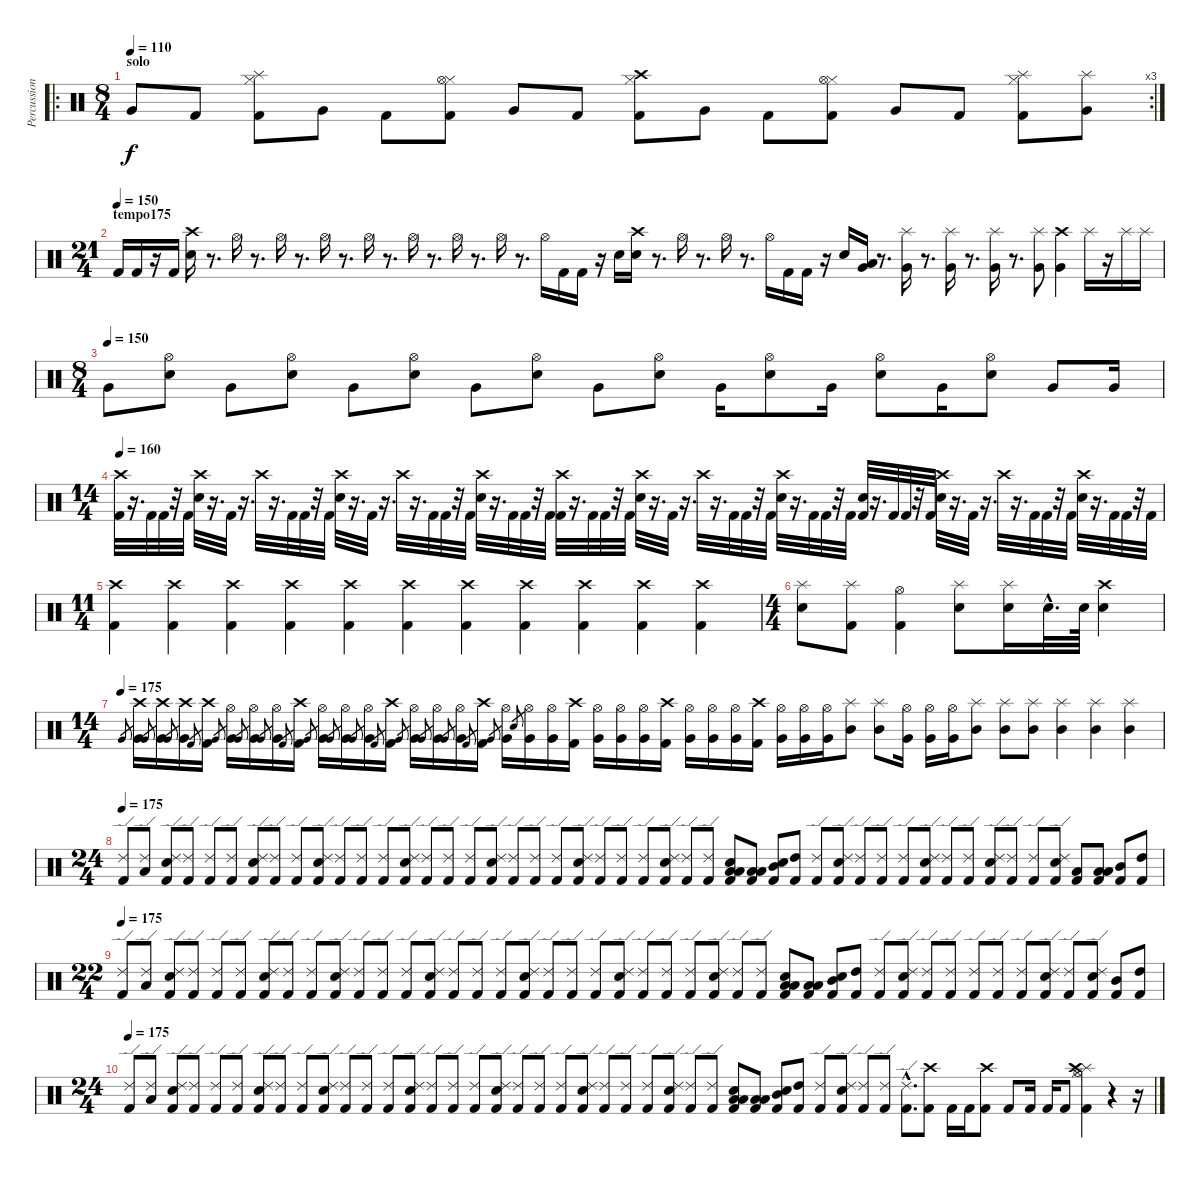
\track ("Percussions" "Percussion") {instrument percussion}
\staff {score}
\articulation defaults
\ro
\rc 3
\ts (8 4)
\section ("" "solo")
\tempo 110
\clef neutral
\ks c "Very Low Tom (hit)".8{dy f} "Kick (hit) 2".8
("Kick (hit) 2" "Hi-Hat (closed)" "Splash (hit)").8 "Very Low Tom (hit)".8 "Kick (hit) 2".8 ("Kick (hit) 2" "Hi-Hat (closed)" "Hi-Hat (open)").8 "Very Low Tom (hit)".8 "Kick (hit) 2".8 ("Kick (hit) 2" "Hi-Hat (closed)" "Crash high (hit)").8 "Very Low Tom (hit)".8 "Kick (hit) 2".8 ("Kick (hit) 2" "Hi-Hat (closed)" "Hi-Hat (open)").8 "Very Low Tom (hit)".8 "Kick (hit) 2".8 ("Kick (hit) 2" "Hi-Hat (closed)" "Splash (hit)").8 ("Very Low Tom (hit)" "Splash (hit)").8 |
\ts (21 4)
\section ("" "tempo175")
\tempo (150)
"Kick (hit) 2".16 "Kick (hit) 2".16 r.16 "Kick (hit) 2".16 ("Crash high (hit)" "Electric Snare (hit)").16 r.8{d} "Hi-Hat (open)".16 r.8{d} "Hi-Hat (open)".16 r.8{d} "Hi-Hat (open)".16 r.8{d} "Hi-Hat (open)".16 r.8{d} "Hi-Hat (open)".16 r.8{d} "Hi-Hat (open)".16 r.8{d} "Hi-Hat (open)".16 r.8{d} "Hi-Hat (open)".16 "Kick (hit) 2".16 "Kick (hit) 2".16 r.16 "Snare (hit) 2".16 ("Crash high (hit)" "Electric Snare (hit)").16 r.8{d} "Hi-Hat (open)".16 r.8{d} "Hi-Hat (open)".16 r.8{d} "Hi-Hat (open)".16 "Kick (hit) 2".16 "Kick (hit) 2".16 r.16 "Snare (hit) 2".16 ("Very Low Tom (hit)" "Low Tom (hit)").16 r.8{d} ("Very Low Tom (hit)" "Splash (hit)").16 r.8{d} ("Very Low Tom (hit)" "Splash (hit)").16 r.8{d} ("Very Low Tom (hit)" "Splash (hit)").16 r.8{d} ("Very Low Tom (hit)" "Splash (hit)").8 ("Very Low Tom (hit)" "Crash high (hit)").4 "Splash (hit)".16 r.16 "Splash (hit)".16 "Splash (hit)".16 |
\ts (8 4)
\tempo (150)
"Very Low Tom (hit)".8 ("Hi-Hat (open)" "Snare (hit) 2").8 "Very Low Tom (hit)".8 ("Hi-Hat (open)" "Snare (hit) 2").8 "Very Low Tom (hit)".8 ("Hi-Hat (open)" "Snare (hit) 2").8 "Very Low Tom (hit)".8 ("Hi-Hat (open)" "Snare (hit) 2").8 "Very Low Tom (hit)".8 ("Hi-Hat (open)" "Snare (hit) 2").8 "Very Low Tom (hit)".16 ("Hi-Hat (open)" "Snare (hit) 2").8 "Very Low Tom (hit)".16 ("Hi-Hat (open)" "Snare (hit) 2").8 "Very Low Tom (hit)".16 ("Hi-Hat (open)" "Snare (hit) 2").8 "Very Low Tom (hit)".8 "Very Low Tom (hit)".16 |
\ts (14 4)
\tempo 160
("Crash high (hit)" "Kick (hit) 2").32 r.16{d} "Kick (hit) 2".32 "Kick (hit) 2".32 r.32 "Kick (hit) 2".32 ("Electric Snare (hit)" "Crash high (hit)").32 r.16{d} "Kick (hit) 2".32 r.16{d} "Crash high (hit)".32 r.16{d} "Kick (hit) 2".32 "Kick (hit) 2".32 r.32 "Kick (hit) 2".32 ("Electric Snare (hit)" "Crash high (hit)").32 r.16{d} "Kick (hit) 2".32 r.16{d} "Crash high (hit)".32 r.16{d} "Kick (hit) 2".32 "Kick (hit) 2".32 r.32 "Kick (hit) 2".32 ("Crash high (hit)" "Electric Snare (hit)").32 r.16{d} "Kick (hit) 2".32 "Kick (hit) 2".32 r.32 "Kick (hit) 2".32 ("Crash high (hit)" "Kick (hit) 2").32 r.16{d} "Kick (hit) 2".32 "Kick (hit) 2".32 r.32 "Kick (hit) 2".32 ("Electric Snare (hit)" "Crash high (hit)").32 r.16{d} "Kick (hit) 2".32 r.16{d} "Crash high (hit)".32 r.16{d} "Kick (hit) 2".32 "Kick (hit) 2".32 r.32 "Kick (hit) 2".32 ("Crash high (hit)" "Electric Snare (hit)").32 r.16{d} "Kick (hit) 2".32 "Kick (hit) 2".32 r.32 "Kick (hit) 2".32 ("Snare (hit)" "Kick (hit) 2").32 r.16{d} "Kick (hit) 2".32 "Kick (hit) 2".32 r.32 "Kick (hit) 2".32 ("Electric Snare (hit)" "Crash high (hit)").32 r.16{d} "Kick (hit) 2".32 r.16{d} "Crash high (hit)".32 r.16{d} "Kick (hit) 2".32 "Kick (hit) 2".32 r.32 "Kick (hit) 2".32 ("Crash high (hit)" "Electric Snare (hit)").32 r.16{d} "Kick (hit) 2".32 "Kick (hit) 2".32 r.32 "Kick (hit) 2".32 |
\ts (11 4)
("Crash high (hit)" "Kick (hit) 2").4 ("Crash high (hit)" "Kick (hit) 2").4 ("Crash high (hit)" "Kick (hit) 2").4 ("Crash high (hit)" "Kick (hit) 2").4 ("Crash high (hit)" "Kick (hit) 2").4 ("Crash high (hit)" "Kick (hit) 2").4 ("Crash high (hit)" "Kick (hit) 2").4 ("Crash high (hit)" "Kick (hit) 2").4 ("Crash high (hit)" "Kick (hit) 2").4 ("Crash high (hit)" "Kick (hit) 2").4 ("Crash high (hit)" "Kick (hit) 2").4 |
\ts (4 4)
("Snare (hit) 2" "Splash (hit)").8 ("Kick (hit) 2" "Splash (hit)").8 ("Kick (hit) 2" "Hi-Hat (open)").4 ("Snare (hit) 2" "Splash (hit)").8 ("Snare (hit) 2" "Splash (hit)").16 "Snare (hit) 2"{hac}.32{d} "Snare (hit) 2".64 ("Snare (hit) 2" "Crash high (hit)").4 |
\ts (14 4)
\tempo (175)
"Very Low Tom (hit)".8{gr} ("Crash high (hit)" "Very Low Tom (hit)").16 "Very Low Tom (hit)".8{gr} ("Crash high (hit)" "Very Low Tom (hit)").16 "Very Low Tom (hit)".8{gr} ("Crash high (hit)" "Very Low Tom (hit)").16 "Kick (hit) 2".8{gr} ("Crash high (hit)" "Kick (hit) 2").16 "Very Low Tom (hit)".8{gr} ("Hi-Hat (open)" "Very Low Tom (hit)").16 "Very Low Tom (hit)".8{gr} ("Hi-Hat (open)" "Very Low Tom (hit)").16 "Very Low Tom (hit)".8{gr} ("Hi-Hat (open)" "Very Low Tom (hit)").16 "Kick (hit) 2".8{gr} ("Crash high (hit)" "Kick (hit) 2").16 "Very Low Tom (hit)".8{gr} ("Hi-Hat (open)" "Very Low Tom (hit)").16 "Very Low Tom (hit)".8{gr} ("Hi-Hat (open)" "Very Low Tom (hit)").16 "Very Low Tom (hit)".8{gr} ("Hi-Hat (open)" "Very Low Tom (hit)").16 "Kick (hit) 2".8{gr} ("Crash high (hit)" "Kick (hit) 2").16 "Very Low Tom (hit)".8{gr} ("Hi-Hat (open)" "Very Low Tom (hit)").16 "Very Low Tom (hit)".8{gr} ("Hi-Hat (open)" "Very Low Tom (hit)").16 "Very Low Tom (hit)".8{gr} ("Hi-Hat (open)" "Very Low Tom (hit)").16 "Kick (hit) 2".8{gr} ("Crash high (hit)" "Kick (hit) 2").16 "Very Low Tom (hit)".8{gr} ("Hi-Hat (open)" "Very Low Tom (hit)").16 "Snare (hit)".8{gr} ("Hi-Hat (open)" "Very Low Tom (hit)").16 ("Hi-Hat (open)" "Very Low Tom (hit)").16 ("Crash high (hit)" "Kick (hit) 2").16 ("Hi-Hat (open)" "Very Low Tom (hit)").16 ("Hi-Hat (open)" "Very Low Tom (hit)").16 ("Hi-Hat (open)" "Very Low Tom (hit)").16 ("Crash high (hit)" "Kick (hit) 2").16 ("Hi-Hat (open)" "Very Low Tom (hit)").16 ("Hi-Hat (open)" "Very Low Tom (hit)").16 ("Hi-Hat (open)" "Very Low Tom (hit)").16 ("Crash high (hit)" "Kick (hit) 2").16 ("Hi-Hat (open)" "Very Low Tom (hit)").16 ("Hi-Hat (open)" "Very Low Tom (hit)").16 ("Hi-Hat (open)" "Very Low Tom (hit)").16 ("Splash (hit)" "Mid Tom (hit)").8 ("Splash (hit)" "Mid Tom (hit)").8 ("Hi-Hat (open)" "Very Low Tom (hit)").16 ("Hi-Hat (open)" "Very Low Tom (hit)").16 ("Hi-Hat (open)" "Very Low Tom (hit)").16 ("Splash (hit)" "Mid Tom (hit)").8 ("Splash (hit)" "Mid Tom (hit)").8 ("Splash (hit)" "Mid Tom (hit)").8 ("Splash (hit)" "Mid Tom (hit)").4 ("Splash (hit)" "Mid Tom (hit)").4 ("Splash (hit)" "Mid Tom (hit)").4 |
\ts (24 4)
\tempo 175
("Kick (hit) 2" "Ride (edge) 2").8 ("Low Floor Tom (hit)" "Ride (edge) 2").8 ("Kick (hit) 2" "Snare (hit) 2" "Ride (edge) 2").8 ("Kick (hit) 2" "Ride (edge) 2").8 ("Kick (hit) 2" "Ride (edge) 2").8 ("Kick (hit) 2" "Ride (edge) 2").8 ("Kick (hit) 2" "Snare (hit) 2" "Ride (edge) 2").8 ("Kick (hit) 2" "Ride (edge) 2").8 ("Kick (hit) 2" "Ride (edge) 2").8 ("Kick (hit) 2" "Snare (hit) 2" "Ride (edge) 2").8 ("Kick (hit) 2" "Ride (edge) 2").8 ("Kick (hit) 2" "Ride (edge) 2").8 ("Kick (hit) 2" "Ride (edge) 2").8 ("Kick (hit) 2" "Snare (hit) 2" "Ride (edge) 2").8 ("Kick (hit) 2" "Ride (edge) 2").8 ("Kick (hit) 2" "Ride (edge) 2").8 ("Kick (hit) 2" "Ride (edge) 2").8 ("Kick (hit) 2" "Snare (hit) 2" "Ride (edge) 2").8 ("Kick (hit) 2" "Ride (edge) 2").8 ("Kick (hit) 2" "Ride (edge) 2").8 ("Kick (hit) 2" "Ride (edge) 2").8 ("Kick (hit) 2" "Snare (hit) 2" "Ride (edge) 2").8 ("Kick (hit) 2" "Ride (edge) 2").8 ("Kick (hit) 2" "Ride (edge) 2").8 ("Kick (hit) 2" "Ride (edge) 2").8 ("Kick (hit) 2" "Snare (hit) 2" "Ride (edge) 2").8 ("Kick (hit) 2" "Ride (edge) 2").8 ("Kick (hit) 2" "Ride (edge) 2").8 ("Kick (hit) 2" "Snare (hit) 2" "Low Tom (hit)" "Low Tom (hit)").8 ("Kick (hit) 2" "Low Tom (hit)" "Low Tom (hit)").8 ("Kick (hit) 2" "Snare (hit) 2" "Mid Tom (hit)").8 ("Kick (hit) 2" "High Tom (hit)").8 ("Kick (hit) 2" "Ride (edge) 2").8 ("Kick (hit) 2" "Snare (hit) 2" "Ride (edge) 2").8 ("Kick (hit) 2" "Ride (edge) 2").8 ("Kick (hit) 2" "Ride (edge) 2").8 ("Kick (hit) 2" "Ride (edge) 2").8 ("Kick (hit) 2" "Snare (hit) 2" "Ride (edge) 2").8 ("Kick (hit) 2" "Ride (edge) 2").8 ("Kick (hit) 2" "Ride (edge) 2").8 ("Kick (hit) 2" "Snare (hit) 2" "Ride (edge) 2").8 ("Kick (hit) 2" "Ride (edge) 2").8 ("Kick (hit) 2" "Ride (edge) 2").8 ("Kick (hit) 2" "Snare (hit) 2" "Ride (edge) 2").8 ("Kick (hit) 2" "Low Tom (hit)").8 ("Kick (hit) 2" "Low Tom (hit)" "Low Tom (hit)").8 ("Kick (hit) 2" "Mid Tom (hit)").8 ("Kick (hit) 2" "High Tom (hit)").8 |
\ts (22 4)
\tempo 175
("Kick (hit) 2" "Ride (edge) 2").8 ("Low Floor Tom (hit)" "Ride (edge) 2").8 ("Kick (hit) 2" "Snare (hit) 2" "Ride (edge) 2").8 ("Kick (hit) 2" "Ride (edge) 2").8 ("Kick (hit) 2" "Ride (edge) 2").8 ("Kick (hit) 2" "Ride (edge) 2").8 ("Kick (hit) 2" "Snare (hit) 2" "Ride (edge) 2").8 ("Kick (hit) 2" "Ride (edge) 2").8 ("Kick (hit) 2" "Ride (edge) 2").8 ("Kick (hit) 2" "Snare (hit) 2" "Ride (edge) 2").8 ("Kick (hit) 2" "Ride (edge) 2").8 ("Kick (hit) 2" "Ride (edge) 2").8 ("Kick (hit) 2" "Ride (edge) 2").8 ("Kick (hit) 2" "Snare (hit) 2" "Ride (edge) 2").8 ("Kick (hit) 2" "Ride (edge) 2").8 ("Kick (hit) 2" "Ride (edge) 2").8 ("Kick (hit) 2" "Ride (edge) 2").8 ("Kick (hit) 2" "Snare (hit) 2" "Ride (edge) 2").8 ("Kick (hit) 2" "Ride (edge) 2").8 ("Kick (hit) 2" "Ride (edge) 2").8 ("Kick (hit) 2" "Ride (edge) 2").8 ("Kick (hit) 2" "Snare (hit) 2" "Ride (edge) 2").8 ("Kick (hit) 2" "Ride (edge) 2").8 ("Kick (hit) 2" "Ride (edge) 2").8 ("Kick (hit) 2" "Ride (edge) 2").8 ("Kick (hit) 2" "Snare (hit) 2" "Ride (edge) 2").8 ("Kick (hit) 2" "Ride (edge) 2").8 ("Kick (hit) 2" "Ride (edge) 2").8 ("Kick (hit) 2" "Snare (hit) 2" "Low Tom (hit)" "Low Tom (hit)").8 ("Kick (hit) 2" "Low Tom (hit)" "Low Tom (hit)").8 ("Kick (hit) 2" "Snare (hit) 2" "Mid Tom (hit)").8 ("Kick (hit) 2" "High Tom (hit)").8 ("Kick (hit) 2" "Ride (edge) 2").8 ("Kick (hit) 2" "Snare (hit) 2" "Ride (edge) 2").8 ("Kick (hit) 2" "Ride (edge) 2").8 ("Kick (hit) 2" "Ride (edge) 2").8 ("Kick (hit) 2" "Ride (edge) 2").8 ("Kick (hit) 2" "Ride (edge) 2").8 ("Kick (hit) 2" "Ride (edge) 2").8 ("Kick (hit) 2" "Snare (hit) 2" "Ride (edge) 2").8 ("Kick (hit) 2" "Ride (edge) 2").8 ("Kick (hit) 2" "Snare (hit) 2" "Ride (edge) 2").8 ("Kick (hit) 2" "Mid Tom (hit)").8 ("Kick (hit) 2" "High Tom (hit)").8 |
\ts (24 4)
\tempo 175
("Kick (hit) 2" "Ride (edge) 2").8 ("Low Floor Tom (hit)" "Ride (edge) 2").8 ("Kick (hit) 2" "Snare (hit) 2" "Ride (edge) 2").8 ("Kick (hit) 2" "Ride (edge) 2").8 ("Kick (hit) 2" "Ride (edge) 2").8 ("Kick (hit) 2" "Ride (edge) 2").8 ("Kick (hit) 2" "Snare (hit) 2" "Ride (edge) 2").8 ("Kick (hit) 2" "Ride (edge) 2").8 ("Kick (hit) 2" "Ride (edge) 2").8 ("Kick (hit) 2" "Snare (hit) 2" "Ride (edge) 2").8 ("Kick (hit) 2" "Ride (edge) 2").8 ("Kick (hit) 2" "Ride (edge) 2").8 ("Kick (hit) 2" "Ride (edge) 2").8 ("Kick (hit) 2" "Snare (hit) 2" "Ride (edge) 2").8 ("Kick (hit) 2" "Ride (edge) 2").8 ("Kick (hit) 2" "Ride (edge) 2").8 ("Kick (hit) 2" "Ride (edge) 2").8 ("Kick (hit) 2" "Snare (hit) 2" "Ride (edge) 2").8 ("Kick (hit) 2" "Ride (edge) 2").8 ("Kick (hit) 2" "Ride (edge) 2").8 ("Kick (hit) 2" "Ride (edge) 2").8 ("Kick (hit) 2" "Snare (hit) 2" "Ride (edge) 2").8 ("Kick (hit) 2" "Ride (edge) 2").8 ("Kick (hit) 2" "Ride (edge) 2").8 ("Kick (hit) 2" "Ride (edge) 2").8 ("Kick (hit) 2" "Snare (hit) 2" "Ride (edge) 2").8 ("Kick (hit) 2" "Ride (edge) 2").8 ("Kick (hit) 2" "Ride (edge) 2").8 ("Kick (hit) 2" "Snare (hit) 2" "Low Tom (hit)" "Low Tom (hit)").8 ("Kick (hit) 2" "Low Tom (hit)" "Low Tom (hit)").8 ("Kick (hit) 2" "Snare (hit) 2" "Mid Tom (hit)").8 ("Kick (hit) 2" "High Tom (hit)").8 ("Kick (hit) 2" "Ride (edge) 2").8 ("Kick (hit) 2" "Snare (hit) 2" "Ride (edge) 2").8 ("Kick (hit) 2" "Ride (edge) 2").8 ("Kick (hit) 2" "Ride (edge) 2").8 ("Kick (hit) 2"{hac} "Ride (edge) 2"{hac}).8{d} ("Crash high (hit)" "Kick (hit) 2").8 "Kick (hit) 2".16 "Kick (hit) 2".16 ("Crash high (hit)" "Kick (hit) 2").8 "Kick (hit) 2".8 "Kick (hit) 2".16 "Kick (hit) 2".16 "Kick (hit) 2".8 ("Hi-Hat (closed)" "Hi-Hat (open)" "Splash (hit)" "Crash high (hit)" "Kick (hit) 2").4 r.4 r.16
